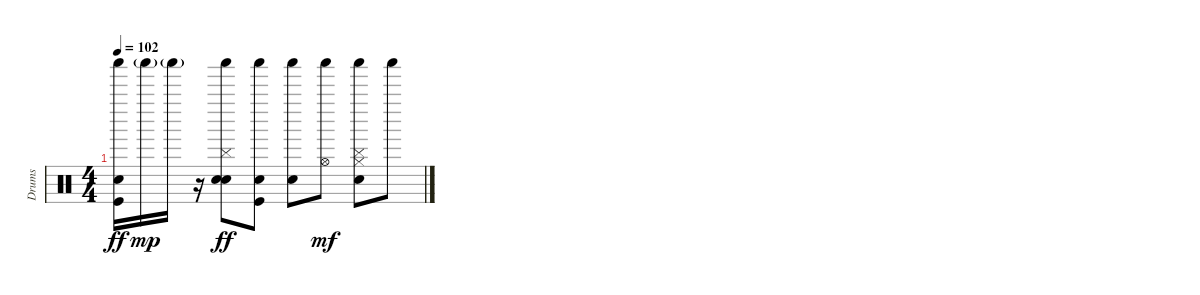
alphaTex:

\track ("Drums" "Drums") {instrument percussion}
\staff {score}
\articulation defaults
\ts (4 4)
\tempo 102
\clef neutral
\ks c
("Shaker (hit)" "Kick (hit)" "Snare (hit)").16{dy ff} "Shaker (hit)"{g}.16{dy mp} "Shaker (hit)"{g}.16 r.16 ("Shaker (hit)" "Hand Clap (hit)" "Cymbal (hit)" "Snare (hit)").8{dy ff} ("Shaker (hit)" "Kick (hit)" "Snare (hit)").8 ("Shaker (hit)" "Snare (hit)").8 ("Shaker (hit)" "Hi-Hat (open)").8{dy mf} ("Hi-Hat (closed)" "Hand Clap (hit)" "Cymbal (hit)" "Shaker (hit)").8 "Shaker (hit)".8
